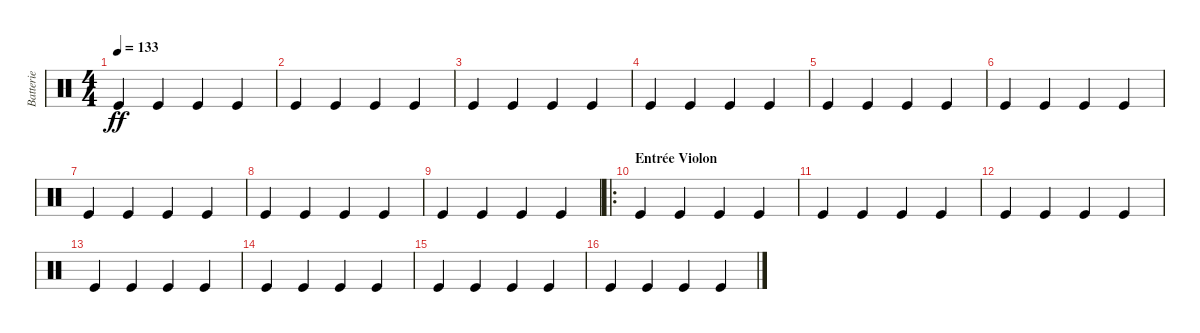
\track ("Batterie" "Batterie") {instrument percussion}
\staff {score}
\articulation defaults
\ts (4 4)
\tempo 133
\clef neutral
\ks c "Kick (hit)".4{dy ff} "Kick (hit)".4 "Kick (hit)".4 "Kick (hit)".4
|
"Kick (hit)".4 "Kick (hit)".4 "Kick (hit)".4 "Kick (hit)".4 |
"Kick (hit)".4 "Kick (hit)".4 "Kick (hit)".4 "Kick (hit)".4 |
"Kick (hit)".4 "Kick (hit)".4 "Kick (hit)".4 "Kick (hit)".4 |
"Kick (hit)".4 "Kick (hit)".4 "Kick (hit)".4 "Kick (hit)".4 |
"Kick (hit)".4 "Kick (hit)".4 "Kick (hit)".4 "Kick (hit)".4 |
"Kick (hit)".4 "Kick (hit)".4 "Kick (hit)".4 "Kick (hit)".4 |
"Kick (hit)".4 "Kick (hit)".4 "Kick (hit)".4 "Kick (hit)".4 |
"Kick (hit)".4 "Kick (hit)".4 "Kick (hit)".4 "Kick (hit)".4 |
\ro
\section ("" "Entrée Violon")
"Kick (hit)".4 "Kick (hit)".4 "Kick (hit)".4 "Kick (hit)".4 |
"Kick (hit)".4 "Kick (hit)".4 "Kick (hit)".4 "Kick (hit)".4 |
"Kick (hit)".4 "Kick (hit)".4 "Kick (hit)".4 "Kick (hit)".4 |
"Kick (hit)".4 "Kick (hit)".4 "Kick (hit)".4 "Kick (hit)".4 |
"Kick (hit)".4 "Kick (hit)".4 "Kick (hit)".4 "Kick (hit)".4 |
"Kick (hit)".4 "Kick (hit)".4 "Kick (hit)".4 "Kick (hit)".4 |
"Kick (hit)".4 "Kick (hit)".4 "Kick (hit)".4 "Kick (hit)".4
